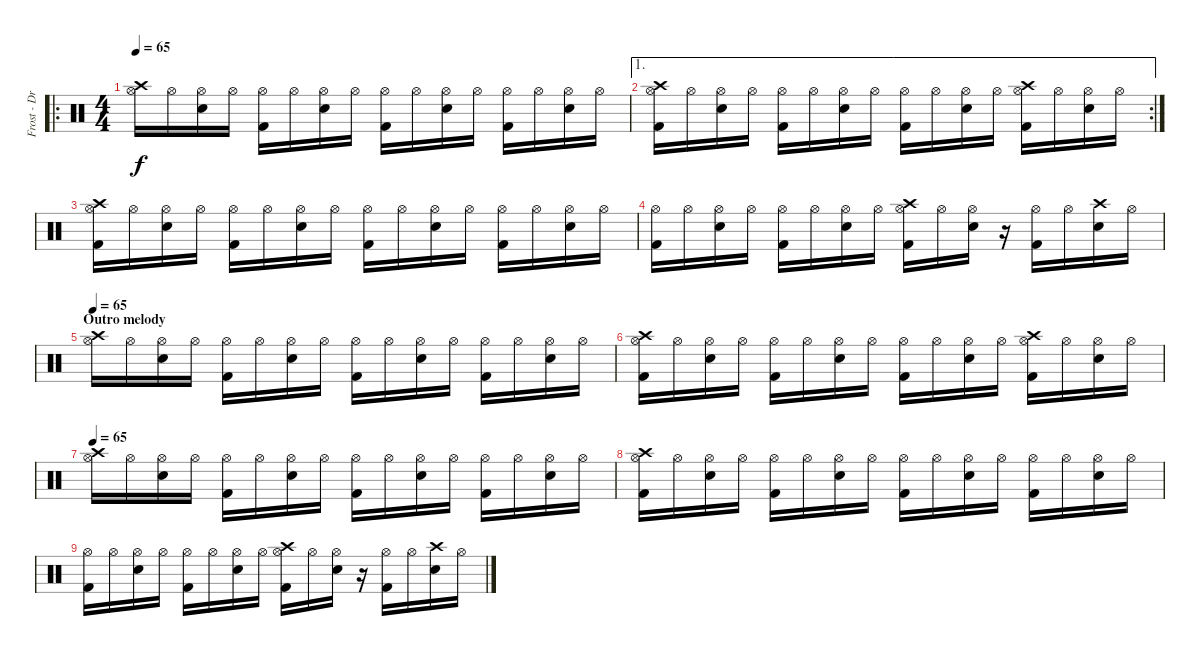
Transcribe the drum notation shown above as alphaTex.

\track ("Frost - Drums" "Frost - Dr") {instrument percussion}
\staff {score}
\articulation defaults
\ro
\ts (4 4)
\tempo 65
\clef neutral
\ks c
("Hi-Hat (open)" "Crash high (hit)").16{dy f} "Hi-Hat (open)".16 ("Hi-Hat (open)" "Electric Snare (hit)").16 "Hi-Hat (open)".16 ("Hi-Hat (open)" "Kick (hit) 2").16 "Hi-Hat (open)".16 ("Hi-Hat (open)" "Electric Snare (hit)").16 "Hi-Hat (open)".16 ("Hi-Hat (open)" "Kick (hit) 2").16 "Hi-Hat (open)".16 ("Hi-Hat (open)" "Electric Snare (hit)").16 "Hi-Hat (open)".16 ("Hi-Hat (open)" "Kick (hit) 2").16 "Hi-Hat (open)".16 ("Hi-Hat (open)" "Electric Snare (hit)").16 "Hi-Hat (open)".16 |
\ae 1
\rc 2
("Hi-Hat (open)" "Kick (hit) 2" "Crash high (hit)").16 "Hi-Hat (open)".16 ("Hi-Hat (open)" "Electric Snare (hit)").16 "Hi-Hat (open)".16 ("Hi-Hat (open)" "Kick (hit) 2").16 "Hi-Hat (open)".16 ("Hi-Hat (open)" "Electric Snare (hit)").16 "Hi-Hat (open)".16 ("Hi-Hat (open)" "Kick (hit) 2").16 "Hi-Hat (open)".16 ("Hi-Hat (open)" "Electric Snare (hit)").16 "Hi-Hat (open)".16 ("Hi-Hat (open)" "Kick (hit) 2" "Crash high (hit)").16 "Hi-Hat (open)".16 ("Hi-Hat (open)" "Electric Snare (hit)").16 "Hi-Hat (open)".16 |
("Hi-Hat (open)" "Kick (hit) 2" "Crash high (hit)").16 "Hi-Hat (open)".16 ("Hi-Hat (open)" "Electric Snare (hit)").16 "Hi-Hat (open)".16 ("Hi-Hat (open)" "Kick (hit) 2").16 "Hi-Hat (open)".16 ("Hi-Hat (open)" "Electric Snare (hit)").16 "Hi-Hat (open)".16 ("Hi-Hat (open)" "Kick (hit) 2").16 "Hi-Hat (open)".16 ("Hi-Hat (open)" "Electric Snare (hit)").16 "Hi-Hat (open)".16 ("Hi-Hat (open)" "Kick (hit) 2").16 "Hi-Hat (open)".16 ("Hi-Hat (open)" "Electric Snare (hit)").16 "Hi-Hat (open)".16 |
("Hi-Hat (open)" "Kick (hit) 2").16 "Hi-Hat (open)".16 ("Hi-Hat (open)" "Electric Snare (hit)").16 "Hi-Hat (open)".16 ("Hi-Hat (open)" "Kick (hit) 2").16 "Hi-Hat (open)".16 ("Hi-Hat (open)" "Electric Snare (hit)").16 "Hi-Hat (open)".16 ("Hi-Hat (open)" "Kick (hit) 2" "Crash high (hit)").16 "Hi-Hat (open)".16 ("Hi-Hat (open)" "Electric Snare (hit)").16 r.16 ("Hi-Hat (open)" "Kick (hit) 2").16 "Hi-Hat (open)".16 ("Electric Snare (hit)" "Crash high (hit)").16 "Hi-Hat (open)".16 |
\section ("" "Outro melody")
\tempo 65
("Hi-Hat (open)" "Crash high (hit)").16{volume 6} "Hi-Hat (open)".16 ("Hi-Hat (open)" "Electric Snare (hit)").16 "Hi-Hat (open)".16 ("Hi-Hat (open)" "Kick (hit) 2").16 "Hi-Hat (open)".16 ("Hi-Hat (open)" "Electric Snare (hit)").16 "Hi-Hat (open)".16 ("Hi-Hat (open)" "Kick (hit) 2").16 "Hi-Hat (open)".16 ("Hi-Hat (open)" "Electric Snare (hit)").16 "Hi-Hat (open)".16 ("Hi-Hat (open)" "Kick (hit) 2").16{volume 3} "Hi-Hat (open)".16 ("Hi-Hat (open)" "Electric Snare (hit)").16 "Hi-Hat (open)".16 |
("Hi-Hat (open)" "Kick (hit) 2" "Crash high (hit)").16 "Hi-Hat (open)".16 ("Hi-Hat (open)" "Electric Snare (hit)").16 "Hi-Hat (open)".16 ("Hi-Hat (open)" "Kick (hit) 2").16 "Hi-Hat (open)".16 ("Hi-Hat (open)" "Electric Snare (hit)").16 "Hi-Hat (open)".16 ("Hi-Hat (open)" "Kick (hit) 2").16 "Hi-Hat (open)".16 ("Hi-Hat (open)" "Electric Snare (hit)").16 "Hi-Hat (open)".16 ("Hi-Hat (open)" "Kick (hit) 2" "Crash high (hit)").16 "Hi-Hat (open)".16 ("Hi-Hat (open)" "Electric Snare (hit)").16 "Hi-Hat (open)".16 |
\tempo 65
("Hi-Hat (open)" "Crash high (hit)").16{volume 0} "Hi-Hat (open)".16 ("Hi-Hat (open)" "Electric Snare (hit)").16 "Hi-Hat (open)".16 ("Hi-Hat (open)" "Kick (hit) 2").16 "Hi-Hat (open)".16 ("Hi-Hat (open)" "Electric Snare (hit)").16 "Hi-Hat (open)".16 ("Hi-Hat (open)" "Kick (hit) 2").16 "Hi-Hat (open)".16 ("Hi-Hat (open)" "Electric Snare (hit)").16 "Hi-Hat (open)".16 ("Hi-Hat (open)" "Kick (hit) 2").16 "Hi-Hat (open)".16 ("Hi-Hat (open)" "Electric Snare (hit)").16 "Hi-Hat (open)".16 |
("Hi-Hat (open)" "Kick (hit) 2" "Crash high (hit)").16 "Hi-Hat (open)".16 ("Hi-Hat (open)" "Electric Snare (hit)").16 "Hi-Hat (open)".16 ("Hi-Hat (open)" "Kick (hit) 2").16 "Hi-Hat (open)".16 ("Hi-Hat (open)" "Electric Snare (hit)").16 "Hi-Hat (open)".16 ("Hi-Hat (open)" "Kick (hit) 2").16 "Hi-Hat (open)".16 ("Hi-Hat (open)" "Electric Snare (hit)").16 "Hi-Hat (open)".16 ("Hi-Hat (open)" "Kick (hit) 2").16 "Hi-Hat (open)".16 ("Hi-Hat (open)" "Electric Snare (hit)").16 "Hi-Hat (open)".16 |
("Hi-Hat (open)" "Kick (hit) 2").16 "Hi-Hat (open)".16 ("Hi-Hat (open)" "Electric Snare (hit)").16 "Hi-Hat (open)".16 ("Hi-Hat (open)" "Kick (hit) 2").16 "Hi-Hat (open)".16 ("Hi-Hat (open)" "Electric Snare (hit)").16 "Hi-Hat (open)".16 ("Hi-Hat (open)" "Kick (hit) 2" "Crash high (hit)").16 "Hi-Hat (open)".16 ("Hi-Hat (open)" "Electric Snare (hit)").16 r.16 ("Hi-Hat (open)" "Kick (hit) 2").16 "Hi-Hat (open)".16 ("Electric Snare (hit)" "Crash high (hit)").16 "Hi-Hat (open)".16
